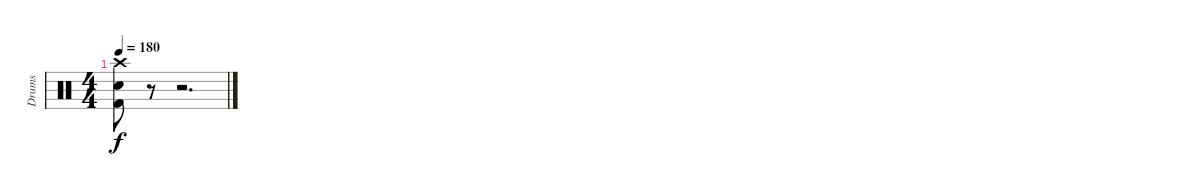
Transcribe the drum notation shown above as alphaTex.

\track ("Drums" "Drums") {instrument percussion}
\staff {score}
\articulation defaults
\ts (4 4)
\tempo 180
\clef neutral
\ks c
("Crash high (hit)" "Electric Snare (hit)" "Kick (hit) 2").8{dy f} r.8 r.2{d}
